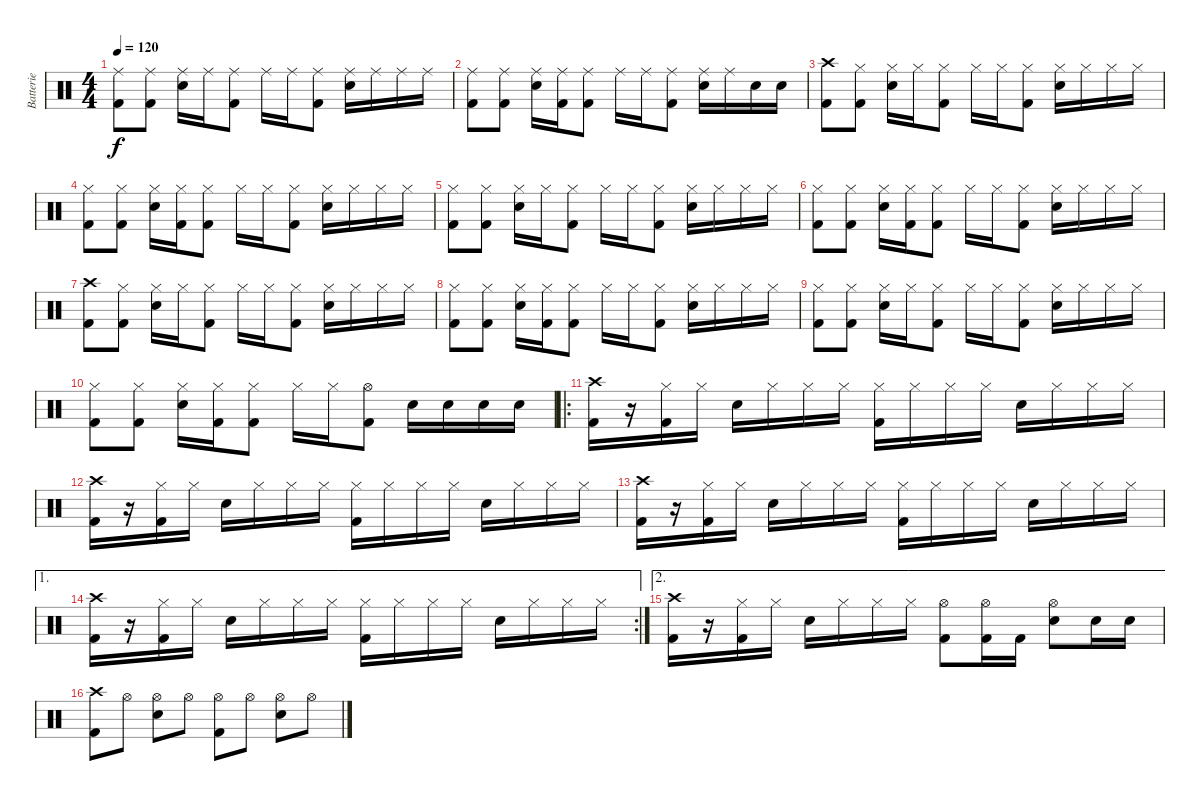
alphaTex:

\track ("Batterie" "Batterie") {instrument percussion}
\staff {score}
\articulation defaults
\ts (4 4)
\tempo 120
\clef neutral
\ks c
("Ride (middle)" "Kick (hit) 2").8{dy f} ("Ride (middle)" "Kick (hit) 2").8 ("Ride (middle)" "Snare (hit) 2").16 "Ride (middle)".16 ("Ride (middle)" "Kick (hit) 2").8 "Ride (middle)".16 "Ride (middle)".16 ("Ride (middle)" "Kick (hit) 2").8 ("Ride (middle)" "Snare (hit) 2").16 "Ride (middle)".16 "Ride (middle)".16 "Ride (middle)".16 |
("Ride (middle)" "Kick (hit) 2").8 ("Ride (middle)" "Kick (hit) 2").8 ("Ride (middle)" "Snare (hit) 2").16 ("Ride (middle)" "Kick (hit) 2").16 ("Ride (middle)" "Kick (hit) 2").8 "Ride (middle)".16 "Ride (middle)".16 ("Ride (middle)" "Kick (hit) 2").8 ("Ride (middle)" "Snare (hit) 2").16 "Ride (middle)".16 "Snare (hit) 2".16 "Snare (hit) 2".16 |
("Crash high (hit)" "Kick (hit) 2").8 ("Hi-Hat (closed)" "Kick (hit) 2").8 ("Hi-Hat (closed)" "Snare (hit) 2").16 "Hi-Hat (closed)".16 ("Hi-Hat (closed)" "Kick (hit) 2").8 "Hi-Hat (closed)".16 "Hi-Hat (closed)".16 ("Hi-Hat (closed)" "Kick (hit) 2").8 ("Hi-Hat (closed)" "Snare (hit) 2").16 "Hi-Hat (closed)".16 "Hi-Hat (closed)".16 "Hi-Hat (closed)".16 |
("Hi-Hat (closed)" "Kick (hit) 2").8 ("Hi-Hat (closed)" "Kick (hit) 2").8 ("Hi-Hat (closed)" "Snare (hit) 2").16 ("Hi-Hat (closed)" "Kick (hit) 2").16 ("Hi-Hat (closed)" "Kick (hit) 2").8 "Hi-Hat (closed)".16 "Hi-Hat (closed)".16 ("Hi-Hat (closed)" "Kick (hit) 2").8 ("Hi-Hat (closed)" "Snare (hit) 2").16 "Hi-Hat (closed)".16 "Hi-Hat (closed)".16 "Hi-Hat (closed)".16 |
("Hi-Hat (closed)" "Kick (hit) 2").8 ("Hi-Hat (closed)" "Kick (hit) 2").8 ("Hi-Hat (closed)" "Snare (hit) 2").16 "Hi-Hat (closed)".16 ("Hi-Hat (closed)" "Kick (hit) 2").8 "Hi-Hat (closed)".16 "Hi-Hat (closed)".16 ("Hi-Hat (closed)" "Kick (hit) 2").8 ("Hi-Hat (closed)" "Snare (hit) 2").16 "Hi-Hat (closed)".16 "Hi-Hat (closed)".16 "Hi-Hat (closed)".16 |
("Hi-Hat (closed)" "Kick (hit) 2").8 ("Hi-Hat (closed)" "Kick (hit) 2").8 ("Hi-Hat (closed)" "Snare (hit) 2").16 ("Hi-Hat (closed)" "Kick (hit) 2").16 ("Hi-Hat (closed)" "Kick (hit) 2").8 "Hi-Hat (closed)".16 "Hi-Hat (closed)".16 ("Hi-Hat (closed)" "Kick (hit) 2").8 ("Hi-Hat (closed)" "Snare (hit) 2").16 "Hi-Hat (closed)".16 "Hi-Hat (closed)".16 "Hi-Hat (closed)".16 |
("Crash high (hit)" "Kick (hit) 2").8 ("Hi-Hat (closed)" "Kick (hit) 2").8 ("Hi-Hat (closed)" "Snare (hit) 2").16 "Hi-Hat (closed)".16 ("Hi-Hat (closed)" "Kick (hit) 2").8 "Hi-Hat (closed)".16 "Hi-Hat (closed)".16 ("Hi-Hat (closed)" "Kick (hit) 2").8 ("Hi-Hat (closed)" "Snare (hit) 2").16 "Hi-Hat (closed)".16 "Hi-Hat (closed)".16 "Hi-Hat (closed)".16 |
("Hi-Hat (closed)" "Kick (hit) 2").8 ("Hi-Hat (closed)" "Kick (hit) 2").8 ("Hi-Hat (closed)" "Snare (hit) 2").16 ("Hi-Hat (closed)" "Kick (hit) 2").16 ("Hi-Hat (closed)" "Kick (hit) 2").8 "Hi-Hat (closed)".16 "Hi-Hat (closed)".16 ("Hi-Hat (closed)" "Kick (hit) 2").8 ("Hi-Hat (closed)" "Snare (hit) 2").16 "Hi-Hat (closed)".16 "Hi-Hat (closed)".16 "Hi-Hat (closed)".16 |
("Hi-Hat (closed)" "Kick (hit) 2").8 ("Hi-Hat (closed)" "Kick (hit) 2").8 ("Hi-Hat (closed)" "Snare (hit) 2").16 "Hi-Hat (closed)".16 ("Hi-Hat (closed)" "Kick (hit) 2").8 "Hi-Hat (closed)".16 "Hi-Hat (closed)".16 ("Hi-Hat (closed)" "Kick (hit) 2").8 ("Hi-Hat (closed)" "Snare (hit) 2").16 "Hi-Hat (closed)".16 "Hi-Hat (closed)".16 "Hi-Hat (closed)".16 |
("Hi-Hat (closed)" "Kick (hit) 2").8 ("Hi-Hat (closed)" "Kick (hit) 2").8 ("Hi-Hat (closed)" "Snare (hit) 2").16 ("Hi-Hat (closed)" "Kick (hit) 2").16 ("Hi-Hat (closed)" "Kick (hit) 2").8 "Hi-Hat (closed)".16 "Hi-Hat (closed)".16 ("Hi-Hat (open)" "Kick (hit) 2").8 "Snare (hit) 2".16 "Snare (hit) 2".16 "Snare (hit) 2".16 "Snare (hit) 2".16 |
\ro
("Crash high (hit)" "Kick (hit) 2").16 r.16 ("Hi-Hat (closed)" "Kick (hit) 2").16 "Hi-Hat (closed)".16 "Snare (hit) 2".16 "Hi-Hat (closed)".16 "Hi-Hat (closed)".16 "Hi-Hat (closed)".16 ("Hi-Hat (closed)" "Kick (hit) 2").16 "Hi-Hat (closed)".16 "Hi-Hat (closed)".16 "Hi-Hat (closed)".16 "Snare (hit) 2".16 "Hi-Hat (closed)".16 "Hi-Hat (closed)".16 "Hi-Hat (closed)".16 |
("Crash high (hit)" "Kick (hit) 2").16 r.16 ("Hi-Hat (closed)" "Kick (hit) 2").16 "Hi-Hat (closed)".16 "Snare (hit) 2".16 "Hi-Hat (closed)".16 "Hi-Hat (closed)".16 "Hi-Hat (closed)".16 ("Hi-Hat (closed)" "Kick (hit) 2").16 "Hi-Hat (closed)".16 "Hi-Hat (closed)".16 "Hi-Hat (closed)".16 "Snare (hit) 2".16 "Hi-Hat (closed)".16 "Hi-Hat (closed)".16 "Hi-Hat (closed)".16 |
("Crash high (hit)" "Kick (hit) 2").16 r.16 ("Hi-Hat (closed)" "Kick (hit) 2").16 "Hi-Hat (closed)".16 "Snare (hit) 2".16 "Hi-Hat (closed)".16 "Hi-Hat (closed)".16 "Hi-Hat (closed)".16 ("Hi-Hat (closed)" "Kick (hit) 2").16 "Hi-Hat (closed)".16 "Hi-Hat (closed)".16 "Hi-Hat (closed)".16 "Snare (hit) 2".16 "Hi-Hat (closed)".16 "Hi-Hat (closed)".16 "Hi-Hat (closed)".16 |
\ae 1
\rc 2
("Crash high (hit)" "Kick (hit) 2").16 r.16 ("Hi-Hat (closed)" "Kick (hit) 2").16 "Hi-Hat (closed)".16 "Snare (hit) 2".16 "Hi-Hat (closed)".16 "Hi-Hat (closed)".16 "Hi-Hat (closed)".16 ("Hi-Hat (closed)" "Kick (hit) 2").16 "Hi-Hat (closed)".16 "Hi-Hat (closed)".16 "Hi-Hat (closed)".16 "Snare (hit) 2".16 "Hi-Hat (closed)".16 "Hi-Hat (closed)".16 "Hi-Hat (closed)".16 |
\ae 2
("Crash high (hit)" "Kick (hit) 2").16 r.16 ("Hi-Hat (closed)" "Kick (hit) 2").16 "Hi-Hat (closed)".16 "Snare (hit) 2".16 "Hi-Hat (closed)".16 "Hi-Hat (closed)".16 "Hi-Hat (closed)".16 ("Hi-Hat (open)" "Kick (hit) 2").8 ("Hi-Hat (open)" "Kick (hit) 2").16 "Kick (hit) 2".16 ("Hi-Hat (open)" "Snare (hit) 2").8 "Snare (hit) 2".16 "Snare (hit) 2".16 |
("Crash high (hit)" "Kick (hit) 2").8 "Hi-Hat (open)".8 ("Hi-Hat (open)" "Snare (hit) 2").8 "Hi-Hat (open)".8 ("Hi-Hat (open)" "Kick (hit) 2").8 "Hi-Hat (open)".8 ("Hi-Hat (open)" "Snare (hit) 2").8 "Hi-Hat (open)".8
